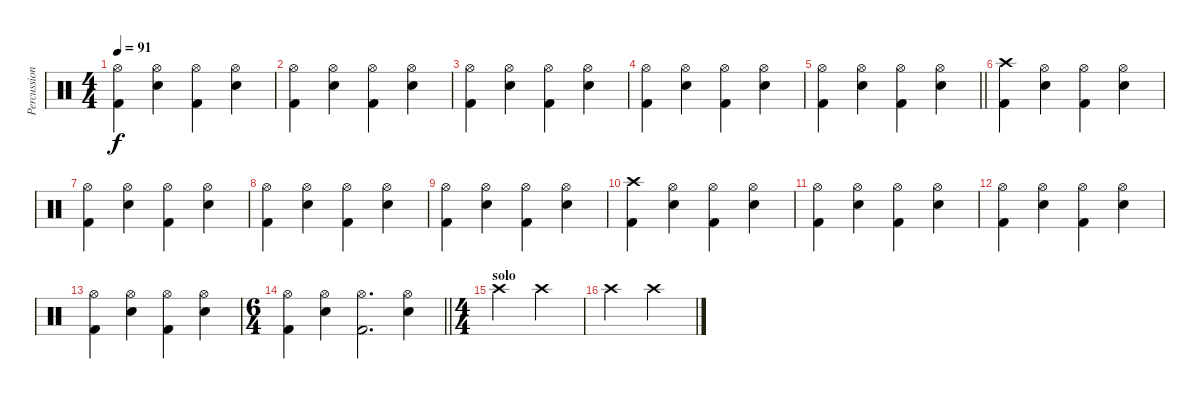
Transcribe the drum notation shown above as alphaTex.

\track ("Percussion" "Percussion") {instrument percussion}
\staff {score}
\articulation defaults
\ts (4 4)
\tempo 91
\clef neutral
\ks c
("Hi-Hat (open)" "Kick (hit) 2").4{dy f} ("Snare (hit) 2" "Hi-Hat (open)").4 ("Hi-Hat (open)" "Kick (hit) 2").4 ("Hi-Hat (open)" "Snare (hit) 2").4 |
("Hi-Hat (open)" "Kick (hit) 2").4 ("Snare (hit) 2" "Hi-Hat (open)").4 ("Hi-Hat (open)" "Kick (hit) 2").4 ("Hi-Hat (open)" "Snare (hit) 2").4 |
("Hi-Hat (open)" "Kick (hit) 2").4 ("Snare (hit) 2" "Hi-Hat (open)").4 ("Hi-Hat (open)" "Kick (hit) 2").4 ("Hi-Hat (open)" "Snare (hit) 2").4 |
("Hi-Hat (open)" "Kick (hit) 2").4 ("Snare (hit) 2" "Hi-Hat (open)").4 ("Hi-Hat (open)" "Kick (hit) 2").4 ("Hi-Hat (open)" "Snare (hit) 2").4 |
\barLineRight lightlight
("Hi-Hat (open)" "Kick (hit) 2").4 ("Snare (hit) 2" "Hi-Hat (open)").4 ("Hi-Hat (open)" "Kick (hit) 2").4 ("Hi-Hat (open)" "Snare (hit) 2").4 |
("Crash high (hit)" "Kick (hit) 2").4 ("Snare (hit) 2" "Hi-Hat (open)").4 ("Hi-Hat (open)" "Kick (hit) 2").4 ("Hi-Hat (open)" "Snare (hit) 2").4 |
("Hi-Hat (open)" "Kick (hit) 2").4 ("Snare (hit) 2" "Hi-Hat (open)").4 ("Hi-Hat (open)" "Kick (hit) 2").4 ("Hi-Hat (open)" "Snare (hit) 2").4 |
("Hi-Hat (open)" "Kick (hit) 2").4 ("Snare (hit) 2" "Hi-Hat (open)").4 ("Hi-Hat (open)" "Kick (hit) 2").4 ("Hi-Hat (open)" "Snare (hit) 2").4 |
("Hi-Hat (open)" "Kick (hit) 2").4 ("Snare (hit) 2" "Hi-Hat (open)").4 ("Hi-Hat (open)" "Kick (hit) 2").4 ("Hi-Hat (open)" "Snare (hit) 2").4 |
("Crash high (hit)" "Kick (hit) 2").4 ("Snare (hit) 2" "Hi-Hat (open)").4 ("Hi-Hat (open)" "Kick (hit) 2").4 ("Hi-Hat (open)" "Snare (hit) 2").4 |
("Hi-Hat (open)" "Kick (hit) 2").4 ("Snare (hit) 2" "Hi-Hat (open)").4 ("Hi-Hat (open)" "Kick (hit) 2").4 ("Hi-Hat (open)" "Snare (hit) 2").4 |
("Hi-Hat (open)" "Kick (hit) 2").4 ("Snare (hit) 2" "Hi-Hat (open)").4 ("Hi-Hat (open)" "Kick (hit) 2").4 ("Hi-Hat (open)" "Snare (hit) 2").4 |
("Hi-Hat (open)" "Kick (hit) 2").4 ("Snare (hit) 2" "Hi-Hat (open)").4 ("Hi-Hat (open)" "Kick (hit) 2").4 ("Hi-Hat (open)" "Snare (hit) 2").4 |
\ts (6 4)
\barLineRight lightlight
("Hi-Hat (open)" "Kick (hit) 2").4 ("Snare (hit) 2" "Hi-Hat (open)").4 ("Hi-Hat (open)" "Kick (hit) 2").2{d} ("Snare (hit) 2" "Hi-Hat (open)").4 |
\ts (4 4)
\section ("" "solo")
"Crash high (hit)".2 "Crash high (hit)".2 |
"Crash high (hit)".2 "Crash high (hit)".2
